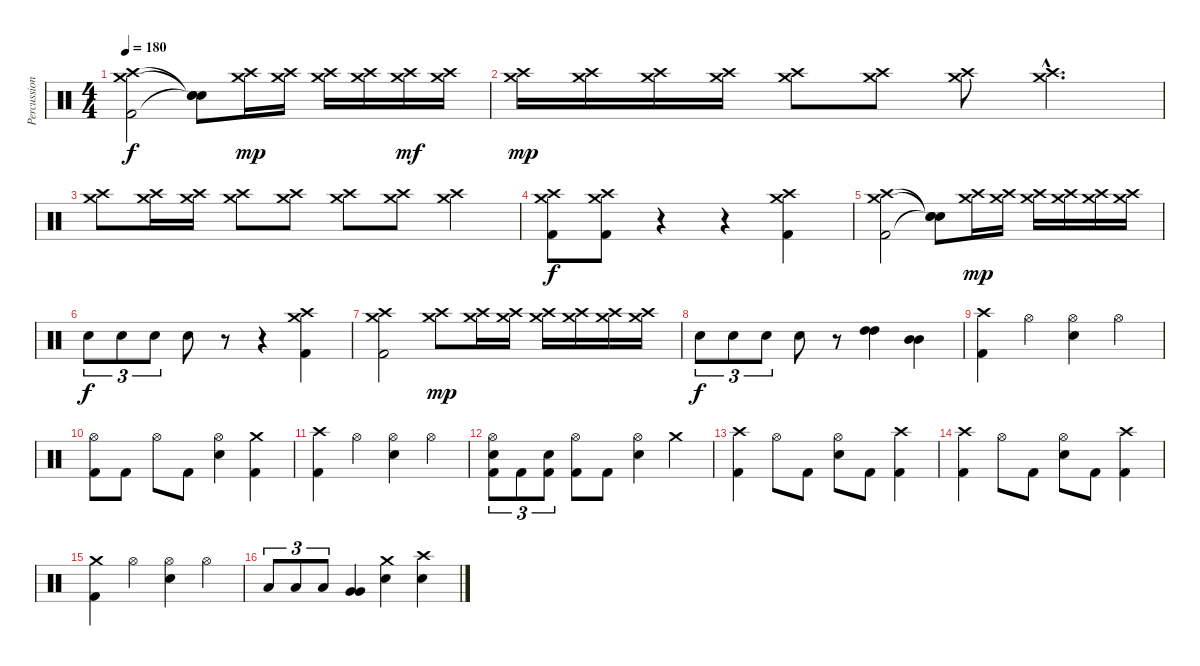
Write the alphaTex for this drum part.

\track ("Percussion" "Percussion") {instrument percussion}
\staff {score}
\articulation defaults
\ts (4 4)
\tempo 180
\clef neutral
\ks c
("Crash medium (hit)" "Crash high (hit)" "Kick (hit) 2").2{dy f} ("Snare (hit)"{t} "Snare (hit)"{t} "Snare (hit)"{t}).8 ("Crash medium (hit)" "Crash high (hit)").16{dy mp} ("Crash medium (hit)" "Crash high (hit)").16 ("Crash medium (hit)" "Crash high (hit)").16 ("Crash medium (hit)" "Crash high (hit)").16 ("Crash medium (hit)" "Crash high (hit)").16{dy mf} ("Crash medium (hit)" "Crash high (hit)").16 |
("Crash medium (hit)" "Crash high (hit)").16{dy mp} ("Crash medium (hit)" "Crash high (hit)").16 ("Crash medium (hit)" "Crash high (hit)").16 ("Crash medium (hit)" "Crash high (hit)").16 ("Crash medium (hit)" "Crash high (hit)").8 ("Crash medium (hit)" "Crash high (hit)").8 ("Crash medium (hit)" "Crash high (hit)").8 ("Crash medium (hit)"{hac} "Crash high (hit)"{hac}).4{d} |
("Crash medium (hit)" "Crash high (hit)").8 ("Crash medium (hit)" "Crash high (hit)").16 ("Crash medium (hit)" "Crash high (hit)").16 ("Crash medium (hit)" "Crash high (hit)").8 ("Crash medium (hit)" "Crash high (hit)").8 ("Crash medium (hit)" "Crash high (hit)").8 ("Crash medium (hit)" "Crash high (hit)").8 ("Crash medium (hit)" "Crash high (hit)").4 |
("Crash medium (hit)" "Crash high (hit)" "Kick (hit) 2").8{dy f} ("Crash medium (hit)" "Crash high (hit)" "Kick (hit) 2").8 r.4 r.4 ("Crash medium (hit)" "Crash high (hit)" "Kick (hit) 2").4 |
("Crash medium (hit)" "Crash high (hit)" "Kick (hit) 2").2 ("Snare (hit)"{t} "Snare (hit)"{t} "Snare (hit)"{t}).8 ("Crash medium (hit)" "Crash high (hit)").16{dy mp} ("Crash medium (hit)" "Crash high (hit)").16 ("Crash medium (hit)" "Crash high (hit)").16 ("Crash medium (hit)" "Crash high (hit)").16 ("Crash medium (hit)" "Crash high (hit)").16 ("Crash medium (hit)" "Crash high (hit)").16 |
"Snare (hit) 2".8{tu (3 2) dy f} "Snare (hit) 2".8{tu (3 2)} "Snare (hit) 2".8{tu (3 2)} "Snare (hit) 2".8 r.8 r.4 ("Crash medium (hit)" "Crash high (hit)" "Kick (hit) 2").4 |
("Crash medium (hit)" "Crash high (hit)" "Kick (hit) 2").2 ("Crash medium (hit)" "Crash high (hit)").8{dy mp} ("Crash medium (hit)" "Crash high (hit)").16 ("Crash medium (hit)" "Crash high (hit)").16 ("Crash medium (hit)" "Crash high (hit)").16 ("Crash medium (hit)" "Crash high (hit)").16 ("Crash medium (hit)" "Crash high (hit)").16 ("Crash medium (hit)" "Crash high (hit)").16 |
"Snare (hit) 2".8{tu (3 2) dy f} "Snare (hit) 2".8{tu (3 2)} "Snare (hit) 2".8{tu (3 2)} "Snare (hit) 2".8 r.8 ("High Tom (hit)" "High Tom (hit)").4 ("Mid Tom (hit)" "Mid Tom (hit)").4 |
("Crash high (hit)" "Kick (hit) 2").4 "Hi-Hat (open)".4 ("Hi-Hat (open)" "Snare (hit) 2").4 "Hi-Hat (open)".4 |
("Hi-Hat (open)" "Kick (hit) 2").8 "Kick (hit) 2".8 "Hi-Hat (open)".8 "Kick (hit) 2".8 ("Hi-Hat (open)" "Snare (hit) 2").4 ("Crash medium (hit)" "Kick (hit) 2").4 |
("Crash high (hit)" "Kick (hit) 2").4 "Hi-Hat (open)".4 ("Hi-Hat (open)" "Snare (hit) 2").4 "Hi-Hat (open)".4 |
("Hi-Hat (open)" "Snare (hit) 2" "Kick (hit) 2").8{tu (3 2)} "Kick (hit) 2".8{tu (3 2)} ("Snare (hit)" "Kick (hit) 2").8{tu (3 2)} ("Hi-Hat (open)" "Kick (hit) 2").8 "Kick (hit) 2".8 ("Hi-Hat (open)" "Snare (hit) 2").4 "Crash medium (hit)".4 |
("Crash high (hit)" "Kick (hit) 2").4 "Hi-Hat (open)".8 "Kick (hit) 2".8 ("Hi-Hat (open)" "Snare (hit) 2").8 "Kick (hit) 2".8 ("Crash high (hit)" "Kick (hit) 2").4 |
("Crash high (hit)" "Kick (hit) 2").4 "Hi-Hat (open)".8 "Kick (hit) 2".8 ("Hi-Hat (open)" "Snare (hit) 2").8 "Kick (hit) 2".8 ("Crash high (hit)" "Kick (hit) 2").4 |
("Crash medium (hit)" "Kick (hit) 2").4 "Hi-Hat (open)".4 ("Hi-Hat (open)" "Snare (hit) 2").4 "Hi-Hat (open)".4 |
"Low Tom (hit)".8{tu (3 2)} "Low Tom (hit)".8{tu (3 2)} "Low Tom (hit)".8{tu (3 2)} ("Very Low Tom (hit)" "Very Low Tom (hit)").4 ("Crash medium (hit)" "Snare (hit) 2").4 ("Crash high (hit)" "Snare (hit) 2").4
